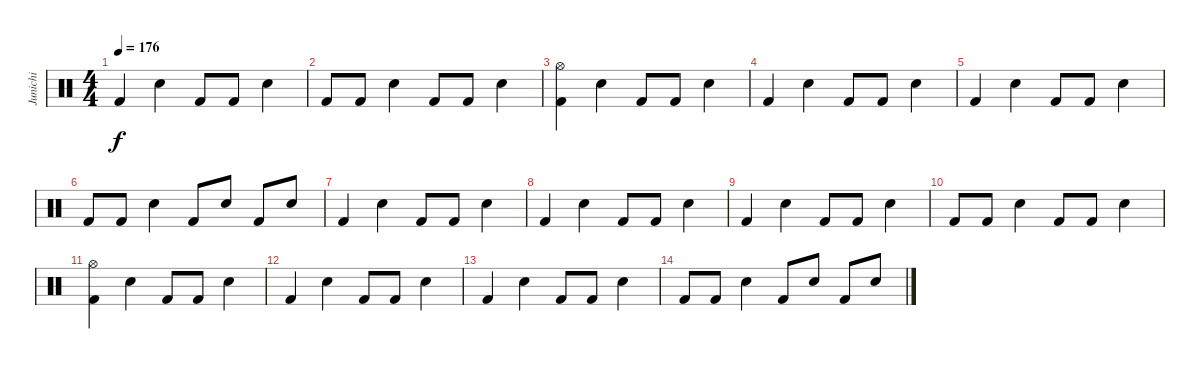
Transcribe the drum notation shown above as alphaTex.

\track ("Junichi" "Junichi") {instrument percussion}
\staff {score}
\articulation defaults
\ts (4 4)
\tempo 176
\clef neutral
\ks c "Kick (hit) 2".4{dy f} "Snare (hit) 2".4 "Kick (hit) 2".8 "Kick (hit) 2".8 "Snare (hit) 2".4
|
"Kick (hit) 2".8 "Kick (hit) 2".8 "Snare (hit) 2".4 "Kick (hit) 2".8 "Kick (hit) 2".8 "Snare (hit) 2".4 |
("Hi-Hat (open)" "Kick (hit) 2").4 "Snare (hit) 2".4 "Kick (hit) 2".8 "Kick (hit) 2".8 "Snare (hit) 2".4 |
"Kick (hit) 2".4 "Snare (hit) 2".4 "Kick (hit) 2".8 "Kick (hit) 2".8 "Snare (hit) 2".4 |
"Kick (hit) 2".4 "Snare (hit) 2".4 "Kick (hit) 2".8 "Kick (hit) 2".8 "Snare (hit) 2".4 |
"Kick (hit) 2".8 "Kick (hit) 2".8 "Snare (hit) 2".4 "Kick (hit) 2".8 "Snare (hit) 2".8 "Kick (hit) 2".8 "Snare (hit) 2".8 |
"Kick (hit) 2".4 "Snare (hit) 2".4 "Kick (hit) 2".8 "Kick (hit) 2".8 "Snare (hit) 2".4 |
"Kick (hit) 2".4 "Snare (hit) 2".4 "Kick (hit) 2".8 "Kick (hit) 2".8 "Snare (hit) 2".4 |
"Kick (hit) 2".4 "Snare (hit) 2".4 "Kick (hit) 2".8 "Kick (hit) 2".8 "Snare (hit) 2".4 |
"Kick (hit) 2".8 "Kick (hit) 2".8 "Snare (hit) 2".4 "Kick (hit) 2".8 "Kick (hit) 2".8 "Snare (hit) 2".4 |
("Hi-Hat (open)" "Kick (hit) 2").4 "Snare (hit) 2".4 "Kick (hit) 2".8 "Kick (hit) 2".8 "Snare (hit) 2".4 |
"Kick (hit) 2".4 "Snare (hit) 2".4 "Kick (hit) 2".8 "Kick (hit) 2".8 "Snare (hit) 2".4 |
"Kick (hit) 2".4 "Snare (hit) 2".4 "Kick (hit) 2".8 "Kick (hit) 2".8 "Snare (hit) 2".4 |
"Kick (hit) 2".8 "Kick (hit) 2".8 "Snare (hit) 2".4 "Kick (hit) 2".8 "Snare (hit) 2".8 "Kick (hit) 2".8 "Snare (hit) 2".8
